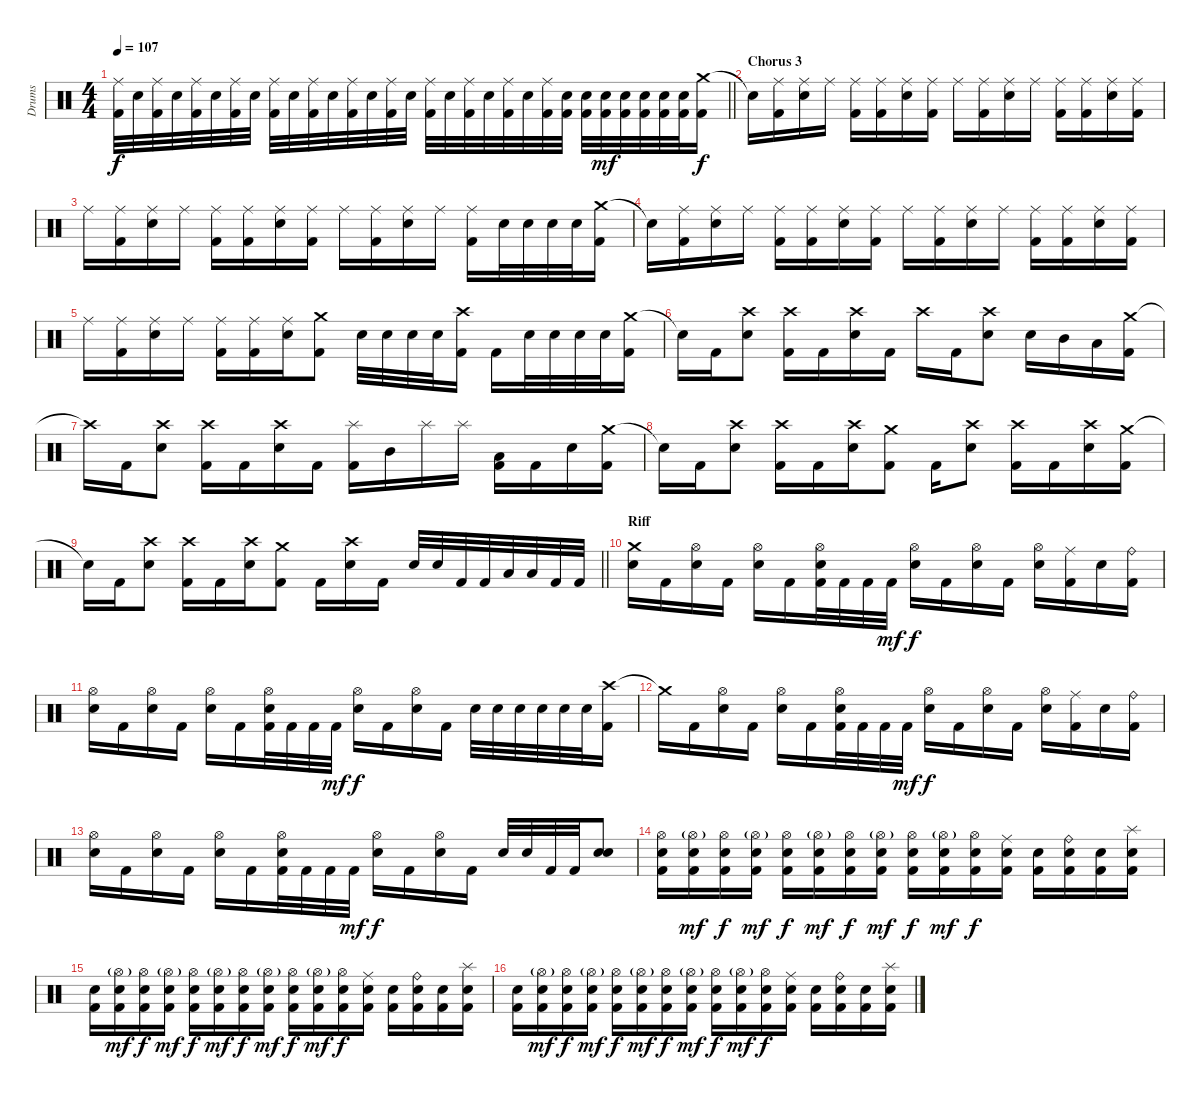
\track ("Drums" "Drums") {instrument percussion}
\staff {score}
\articulation defaults
\ts (4 4)
\tempo 107
\clef neutral
\barLineRight lightlight
\ks c
("Ride (middle)" "Kick (hit) 2").32{dy f} "Electric Snare (hit)".32 ("Ride (middle)" "Kick (hit) 2").32 "Electric Snare (hit)".32 ("Ride (middle)" "Kick (hit) 2").32 "Electric Snare (hit)".32 ("Ride (middle)" "Kick (hit) 2").32 "Electric Snare (hit)".32 ("Ride (middle)" "Kick (hit) 2").32 "Electric Snare (hit)".32 ("Ride (middle)" "Kick (hit) 2").32 "Electric Snare (hit)".32 ("Ride (middle)" "Kick (hit) 2").32 "Electric Snare (hit)".32 ("Ride (middle)" "Kick (hit) 2").32 "Electric Snare (hit)".32 ("Ride (middle)" "Kick (hit) 2").32 "Electric Snare (hit)".32 ("Ride (middle)" "Kick (hit) 2").32 "Electric Snare (hit)".32 ("Ride (middle)" "Kick (hit) 2").32 "Electric Snare (hit)".32 ("Ride (middle)" "Kick (hit) 2").32 ("Electric Snare (hit)" "Kick (hit) 2").32 ("Electric Snare (hit)" "Kick (hit) 2").32 ("Electric Snare (hit)" "Kick (hit) 2").32{dy mf} ("Electric Snare (hit)" "Kick (hit) 2").32 ("Electric Snare (hit)" "Kick (hit) 2").32 ("Electric Snare (hit)" "Kick (hit) 2").32 ("Electric Snare (hit)" "Kick (hit) 2").32 ("Crash medium (hit)" "Kick (hit) 2").16{dy f} |
\section ("" "Chorus 3")
"Snare (hit)"{t}.16 ("Ride (middle)" "Kick (hit) 2").16 ("Ride (middle)" "Electric Snare (hit)").16 "Ride (middle)".16 ("Ride (middle)" "Kick (hit) 2").16 ("Ride (middle)" "Kick (hit) 2").16 ("Ride (middle)" "Electric Snare (hit)").16 ("Ride (middle)" "Kick (hit) 2").16 "Ride (middle)".16 ("Ride (middle)" "Kick (hit) 2").16 ("Ride (middle)" "Electric Snare (hit)").16 "Ride (middle)".16 ("Ride (middle)" "Kick (hit) 2").16 ("Ride (middle)" "Kick (hit) 2").16 ("Ride (middle)" "Electric Snare (hit)").16 ("Ride (middle)" "Kick (hit) 2").16 |
"Ride (middle)".16 ("Ride (middle)" "Kick (hit) 2").16 ("Ride (middle)" "Electric Snare (hit)").16 "Ride (middle)".16 ("Ride (middle)" "Kick (hit) 2").16 ("Ride (middle)" "Kick (hit) 2").16 ("Ride (middle)" "Electric Snare (hit)").16 ("Ride (middle)" "Kick (hit) 2").16 "Ride (middle)".16 ("Ride (middle)" "Kick (hit) 2").16 ("Ride (middle)" "Electric Snare (hit)").16 "Ride (middle)".16 ("Ride (middle)" "Kick (hit) 2").16 "Electric Snare (hit)".32 "Electric Snare (hit)".32 "Electric Snare (hit)".32 "Electric Snare (hit)".32 ("Crash medium (hit)" "Kick (hit) 2").16 |
"Snare (hit)"{t}.16 ("Ride (middle)" "Kick (hit) 2").16 ("Ride (middle)" "Electric Snare (hit)").16 "Ride (middle)".16 ("Ride (middle)" "Kick (hit) 2").16 ("Ride (middle)" "Kick (hit) 2").16 ("Ride (middle)" "Electric Snare (hit)").16 ("Ride (middle)" "Kick (hit) 2").16 "Ride (middle)".16 ("Ride (middle)" "Kick (hit) 2").16 ("Ride (middle)" "Electric Snare (hit)").16 "Ride (middle)".16 ("Ride (middle)" "Kick (hit) 2").16 ("Ride (middle)" "Kick (hit) 2").16 ("Ride (middle)" "Electric Snare (hit)").16 ("Ride (middle)" "Kick (hit) 2").16 |
"Ride (middle)".16 ("Ride (middle)" "Kick (hit) 2").16 ("Ride (middle)" "Electric Snare (hit)").16 "Ride (middle)".16 ("Ride (middle)" "Kick (hit) 2").16 ("Ride (middle)" "Kick (hit) 2").16 ("Ride (middle)" "Electric Snare (hit)").16 ("Crash medium (hit)" "Kick (hit) 2").8 "Electric Snare (hit)".32 "Electric Snare (hit)".32 "Electric Snare (hit)".32 "Electric Snare (hit)".32 ("Crash high (hit)" "Kick (hit) 2").16 "Kick (hit) 2".16 "Electric Snare (hit)".32 "Electric Snare (hit)".32 "Electric Snare (hit)".32 "Electric Snare (hit)".32 ("Crash medium (hit)" "Kick (hit) 2").16 |
"Snare (hit)"{t}.16 "Kick (hit) 2".16 ("Crash high (hit)" "Electric Snare (hit)").8 ("Crash high (hit)" "Kick (hit) 2").16 "Kick (hit) 2".16 ("Crash high (hit)" "Electric Snare (hit)").16 "Kick (hit) 2".16 "Crash high (hit)".16 "Kick (hit) 2".16 ("Crash high (hit)" "Electric Snare (hit)").8 "Electric Snare (hit)".16 "Mid Tom (hit)".16 "Low Tom (hit)".16 ("Crash medium (hit)" "Kick (hit) 2").16 |
"Crash high (hit)"{t}.16 "Kick (hit) 2".16 ("Crash high (hit)" "Electric Snare (hit)").8 ("Crash high (hit)" "Kick (hit) 2").16 "Kick (hit) 2".16 ("Crash high (hit)" "Electric Snare (hit)").16 "Kick (hit) 2".16 ("Splash (hit)" "Kick (hit) 2").16 "Mid Tom (hit)".16 "Splash (hit)".16 "Splash (hit)".16 ("Low Tom (hit)" "Kick (hit) 2").16 "Kick (hit) 2".16 "Electric Snare (hit)".16 ("Crash medium (hit)" "Kick (hit) 2").16 |
"Snare (hit)"{t}.16 "Kick (hit) 2".16 ("Crash high (hit)" "Electric Snare (hit)").8 ("Crash high (hit)" "Kick (hit) 2").16 "Kick (hit) 2".16 ("Crash high (hit)" "Electric Snare (hit)").16 ("Crash medium (hit)" "Kick (hit) 2").8 "Kick (hit) 2".16 ("Crash high (hit)" "Electric Snare (hit)").8 ("Crash high (hit)" "Kick (hit) 2").16 "Kick (hit) 2".16 ("Crash high (hit)" "Electric Snare (hit)").16 ("Crash medium (hit)" "Kick (hit) 2").16 |
\barLineRight lightlight "Snare (hit)"{t}.16 "Kick (hit) 2".16
("Crash high (hit)" "Electric Snare (hit)").8 ("Crash high (hit)" "Kick (hit) 2").16 "Kick (hit) 2".16 ("Crash high (hit)" "Electric Snare (hit)").16 ("Crash medium (hit)" "Kick (hit) 2").8 "Kick (hit) 2".16 ("Crash high (hit)" "Electric Snare (hit)").16 "Kick (hit) 2".16 "Electric Snare (hit)".32 "Electric Snare (hit)".32 "Kick (hit) 2".32 "Kick (hit) 2".32 "Low Floor Tom (hit)".32 "Low Floor Tom (hit)".32 "Kick (hit) 2".32 "Kick (hit) 2".32 |
\section ("" "Riff")
("Crash medium (hit)" "Electric Snare (hit)").16 "Kick (hit) 2".16 ("Hi-Hat (open)" "Electric Snare (hit)").16 "Kick (hit) 2".16 ("Hi-Hat (open)" "Electric Snare (hit)").16 "Kick (hit) 2".16 ("Hi-Hat (open)" "Electric Snare (hit)" "Kick (hit) 2").32 "Kick (hit) 2".32 "Kick (hit) 2".32 "Kick (hit) 2".32{dy mf} ("Hi-Hat (open)" "Electric Snare (hit)").16{dy f} "Kick (hit) 2".16 ("Hi-Hat (open)" "Electric Snare (hit)").16 "Kick (hit) 2".16 ("Hi-Hat (open)" "Electric Snare (hit)").16 ("Ride (middle)" "Kick (hit) 2").16 "Electric Snare (hit)".16 ("Ride (bell)" "Kick (hit) 2").16 |
("Hi-Hat (open)" "Electric Snare (hit)").16 "Kick (hit) 2".16 ("Hi-Hat (open)" "Electric Snare (hit)").16 "Kick (hit) 2".16 ("Hi-Hat (open)" "Electric Snare (hit)").16 "Kick (hit) 2".16 ("Hi-Hat (open)" "Electric Snare (hit)" "Kick (hit) 2").32 "Kick (hit) 2".32 "Kick (hit) 2".32 "Kick (hit) 2".32{dy mf} ("Hi-Hat (open)" "Electric Snare (hit)").16{dy f} "Kick (hit) 2".16 ("Hi-Hat (open)" "Electric Snare (hit)").16 "Kick (hit) 2".16 "Electric Snare (hit)".32 "Electric Snare (hit)".32 "Electric Snare (hit)".32 "Electric Snare (hit)".32 "Electric Snare (hit)".32 "Electric Snare (hit)".32 ("Crash high (hit)" "Kick (hit) 2").16 |
"Crash medium (hit)"{t}.16 "Kick (hit) 2".16 ("Hi-Hat (open)" "Electric Snare (hit)").16 "Kick (hit) 2".16 ("Hi-Hat (open)" "Electric Snare (hit)").16 "Kick (hit) 2".16 ("Hi-Hat (open)" "Electric Snare (hit)" "Kick (hit) 2").32 "Kick (hit) 2".32 "Kick (hit) 2".32 "Kick (hit) 2".32{dy mf} ("Hi-Hat (open)" "Electric Snare (hit)").16{dy f} "Kick (hit) 2".16 ("Hi-Hat (open)" "Electric Snare (hit)").16 "Kick (hit) 2".16 ("Hi-Hat (open)" "Electric Snare (hit)").16 ("Ride (middle)" "Kick (hit) 2").16 "Electric Snare (hit)".16 ("Ride (bell)" "Kick (hit) 2").16 |
("Hi-Hat (open)" "Electric Snare (hit)").16 "Kick (hit) 2".16 ("Hi-Hat (open)" "Electric Snare (hit)").16 "Kick (hit) 2".16 ("Hi-Hat (open)" "Electric Snare (hit)").16 "Kick (hit) 2".16 ("Hi-Hat (open)" "Electric Snare (hit)" "Kick (hit) 2").32 "Kick (hit) 2".32 "Kick (hit) 2".32 "Kick (hit) 2".32{dy mf} ("Hi-Hat (open)" "Electric Snare (hit)").16{dy f} "Kick (hit) 2".16 ("Hi-Hat (open)" "Electric Snare (hit)").16 "Kick (hit) 2".16 "Electric Snare (hit)".32 "Electric Snare (hit)".32 "Kick (hit) 2".32 "Kick (hit) 2".32 ("Electric Snare (hit)" "Electric Snare (hit)").8 |
("Hi-Hat (open)" "Electric Snare (hit)" "Kick (hit) 2").16 ("Hi-Hat (open)"{g} "Electric Snare (hit)" "Kick (hit) 2").16{dy mf} ("Hi-Hat (open)" "Electric Snare (hit)" "Kick (hit) 2").16{dy f} ("Hi-Hat (open)"{g} "Electric Snare (hit)" "Kick (hit) 2").16{dy mf} ("Hi-Hat (open)" "Electric Snare (hit)" "Kick (hit) 2").16{dy f} ("Hi-Hat (open)"{g} "Electric Snare (hit)" "Kick (hit) 2").16{dy mf} ("Hi-Hat (open)" "Electric Snare (hit)" "Kick (hit) 2").16{dy f} ("Hi-Hat (open)"{g} "Electric Snare (hit)" "Kick (hit) 2").16{dy mf} ("Hi-Hat (open)" "Electric Snare (hit)" "Kick (hit) 2").16{dy f} ("Hi-Hat (open)"{g} "Electric Snare (hit)" "Kick (hit) 2").16{dy mf} ("Hi-Hat (open)" "Electric Snare (hit)" "Kick (hit) 2").16{dy f} ("Ride (middle)" "Electric Snare (hit)" "Kick (hit) 2").16 ("Electric Snare (hit)" "Kick (hit) 2").16 ("Ride (bell)" "Electric Snare (hit)" "Kick (hit) 2").16 ("Electric Snare (hit)" "Kick (hit) 2").16 ("Splash (hit)" "Electric Snare (hit)" "Kick (hit) 2").16 |
("Electric Snare (hit)" "Kick (hit) 2").16 ("Hi-Hat (open)"{g} "Electric Snare (hit)" "Kick (hit) 2").16{dy mf} ("Hi-Hat (open)" "Electric Snare (hit)" "Kick (hit) 2").16{dy f} ("Hi-Hat (open)"{g} "Electric Snare (hit)" "Kick (hit) 2").16{dy mf} ("Hi-Hat (open)" "Electric Snare (hit)" "Kick (hit) 2").16{dy f} ("Hi-Hat (open)"{g} "Electric Snare (hit)" "Kick (hit) 2").16{dy mf} ("Hi-Hat (open)" "Electric Snare (hit)" "Kick (hit) 2").16{dy f} ("Hi-Hat (open)"{g} "Electric Snare (hit)" "Kick (hit) 2").16{dy mf} ("Hi-Hat (open)" "Electric Snare (hit)" "Kick (hit) 2").16{dy f} ("Hi-Hat (open)"{g} "Electric Snare (hit)" "Kick (hit) 2").16{dy mf} ("Hi-Hat (open)" "Electric Snare (hit)" "Kick (hit) 2").16{dy f} ("Ride (middle)" "Electric Snare (hit)" "Kick (hit) 2").16 ("Electric Snare (hit)" "Kick (hit) 2").16 ("Ride (bell)" "Electric Snare (hit)" "Kick (hit) 2").16 ("Electric Snare (hit)" "Kick (hit) 2").16 ("Splash (hit)" "Electric Snare (hit)" "Kick (hit) 2").16 |
("Electric Snare (hit)" "Kick (hit) 2").16 ("Hi-Hat (open)"{g} "Electric Snare (hit)" "Kick (hit) 2").16{dy mf} ("Hi-Hat (open)" "Electric Snare (hit)" "Kick (hit) 2").16{dy f} ("Hi-Hat (open)"{g} "Electric Snare (hit)" "Kick (hit) 2").16{dy mf} ("Hi-Hat (open)" "Electric Snare (hit)" "Kick (hit) 2").16{dy f} ("Hi-Hat (open)"{g} "Electric Snare (hit)" "Kick (hit) 2").16{dy mf} ("Hi-Hat (open)" "Electric Snare (hit)" "Kick (hit) 2").16{dy f} ("Hi-Hat (open)"{g} "Electric Snare (hit)" "Kick (hit) 2").16{dy mf} ("Hi-Hat (open)" "Electric Snare (hit)" "Kick (hit) 2").16{dy f} ("Hi-Hat (open)"{g} "Electric Snare (hit)" "Kick (hit) 2").16{dy mf} ("Hi-Hat (open)" "Electric Snare (hit)" "Kick (hit) 2").16{dy f} ("Ride (middle)" "Electric Snare (hit)" "Kick (hit) 2").16 ("Electric Snare (hit)" "Kick (hit) 2").16 ("Ride (bell)" "Electric Snare (hit)" "Kick (hit) 2").16 ("Electric Snare (hit)" "Kick (hit) 2").16 ("Splash (hit)" "Electric Snare (hit)" "Kick (hit) 2").16
